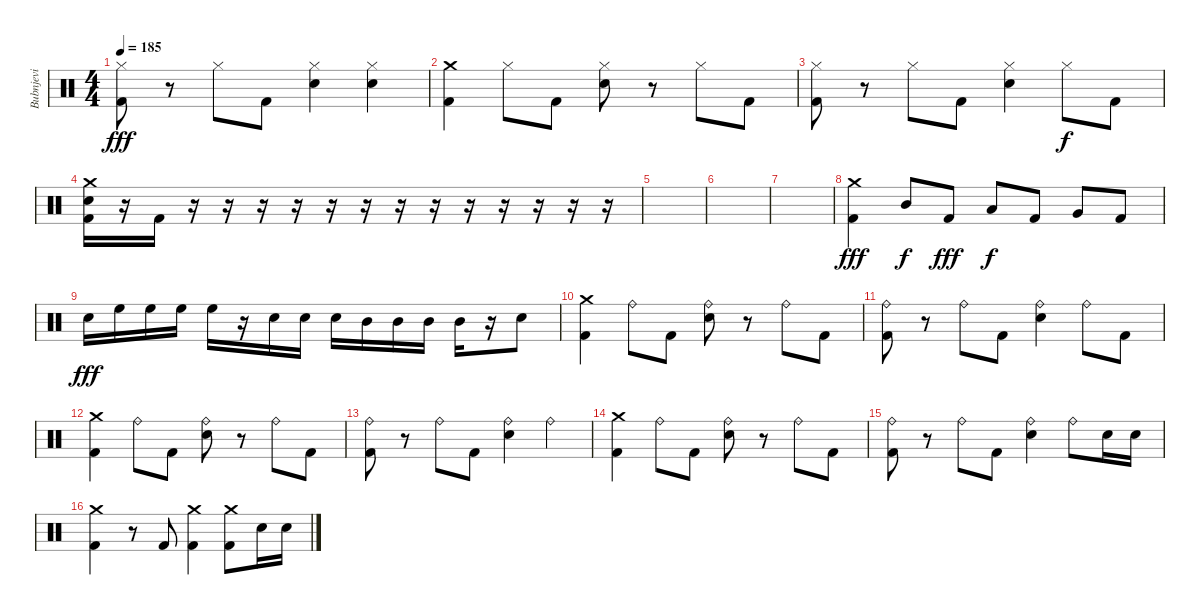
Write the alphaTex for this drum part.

\track ("Bubnjevi" "Bubnjevi") {instrument percussion}
\staff {score}
\articulation defaults
\ts (4 4)
\tempo 185
\clef neutral
\ks c
("Hi-Hat (closed)" "Kick (hit) 2").8{dy fff} r.8 "Hi-Hat (closed)".8 "Kick (hit) 2".8 ("Hi-Hat (closed)" "Snare (hit) 2").4 ("Hi-Hat (closed)" "Snare (hit) 2").4 |
("Crash medium (hit)" "Kick (hit) 2").4 "Hi-Hat (closed)".8 "Kick (hit) 2".8 ("Hi-Hat (closed)" "Snare (hit) 2").8 r.8 "Hi-Hat (closed)".8 "Kick (hit) 2".8 |
("Hi-Hat (closed)" "Kick (hit) 2").8 r.8 "Hi-Hat (closed)".8 "Kick (hit) 2".8 ("Hi-Hat (closed)" "Snare (hit) 2").4 "Hi-Hat (closed)".8{dy f} "Kick (hit) 2".8 |
("Crash medium (hit)" "Snare (hit) 2" "Kick (hit) 2").16 r.16 "Kick (hit) 2".16 r.16 r.16 r.16 r.16 r.16 r.16 r.16 r.16 r.16 r.16 r.16 r.16 r.16 |
|
|
|
("Crash medium (hit)" "Kick (hit) 2").4{dy fff} "Mid Tom (hit)".8{dy f} "Kick (hit) 2".8{dy fff} "Low Tom (hit)".8{dy f} "Kick (hit) 2".8 "Very Low Tom (hit)".8 "Kick (hit) 2".8 |
"Snare (hit) 2".16{dy fff} "High Floor Tom (hit)".16 "High Floor Tom (hit)".16 "High Floor Tom (hit)".16 "High Floor Tom (hit)".16 r.16 "Snare (hit) 2".16 "Snare (hit) 2".16 "Snare (hit) 2".16 "Mid Tom (hit)".16 "Mid Tom (hit)".16 "Mid Tom (hit)".16 "Mid Tom (hit)".16 r.16 "Snare (hit) 2".8 |
("Crash medium (hit)" "Kick (hit) 2").4 "Ride (bell)".8 "Kick (hit) 2".8 ("Ride (bell)" "Snare (hit) 2").8 r.8 "Ride (bell)".8 "Kick (hit) 2".8 |
("Ride (bell)" "Kick (hit) 2").8 r.8 "Ride (bell)".8 "Kick (hit) 2".8 ("Ride (bell)" "Snare (hit) 2").4 "Ride (bell)".8 "Kick (hit) 2".8 |
("Crash medium (hit)" "Kick (hit) 2").4 "Ride (bell)".8 "Kick (hit) 2".8 ("Ride (bell)" "Snare (hit) 2").8 r.8 "Ride (bell)".8 "Kick (hit) 2".8 |
("Ride (bell)" "Kick (hit) 2").8 r.8 "Ride (bell)".8 "Kick (hit) 2".8 ("Ride (bell)" "Snare (hit) 2").4 "Ride (bell)".4 |
("Crash medium (hit)" "Kick (hit) 2").4 "Ride (bell)".8 "Kick (hit) 2".8 ("Ride (bell)" "Snare (hit) 2").8 r.8 "Ride (bell)".8 "Kick (hit) 2".8 |
("Ride (bell)" "Kick (hit) 2").8 r.8 "Ride (bell)".8 "Kick (hit) 2".8 ("Ride (bell)" "Snare (hit) 2").4 "Ride (bell)".8 "Snare (hit) 2".16 "Snare (hit) 2".16 |
("Crash medium (hit)" "Kick (hit) 2").4 r.8 "Kick (hit) 2".8 ("Crash medium (hit)" "Kick (hit) 2").4 ("Crash medium (hit)" "Kick (hit) 2").8 "Snare (hit) 2".16 "Snare (hit) 2".16
